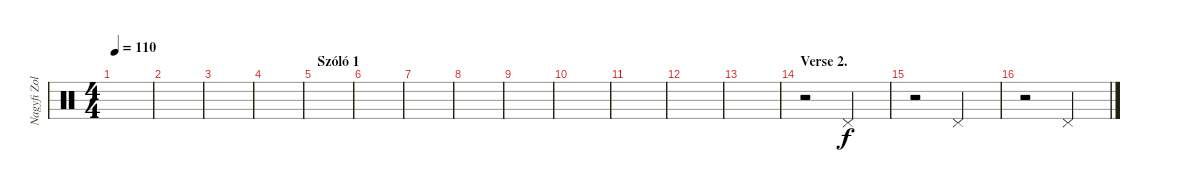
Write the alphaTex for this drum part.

\track ("Nagyfi Zoltán (dob)" "Nagyfi Zol") {instrument percussion}
\staff {score}
\articulation defaults
\ts (4 4)
\tempo 110
\clef neutral
\ks c
|
|
|
|
\section ("" "Szóló 1")
|
|
|
|
|
|
|
|
|
\section ("" "Verse 2.")
r.2 "Pedal Hi-Hat (hit)".2 |
r.2 "Pedal Hi-Hat (hit)".2 |
r.2 "Pedal Hi-Hat (hit)".2
